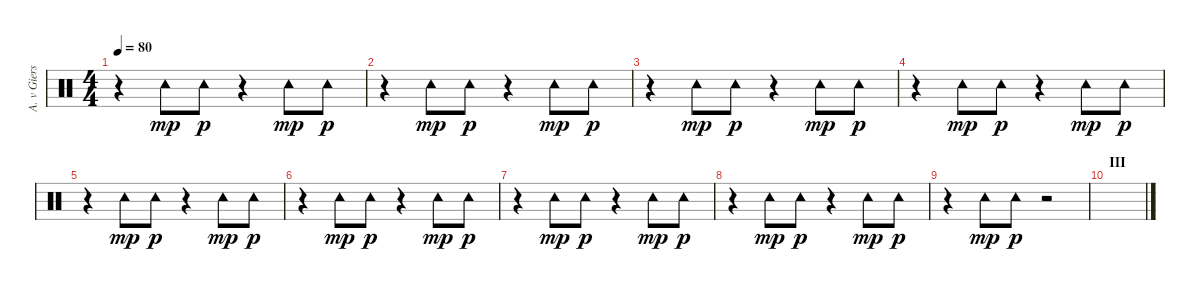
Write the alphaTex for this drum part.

\track ("A. v Giersbergen (tambourine)" "A. v Giers") {instrument percussion}
\staff {score}
\articulation defaults
\ts (4 4)
\tempo 80
\clef neutral
\ks c
r.4{dy p} "Tambourine (hit)".8{dy mp} "Tambourine (hit)".8{dy p} r.4 "Tambourine (hit)".8{dy mp} "Tambourine (hit)".8{dy p} |
r.4 "Tambourine (hit)".8{dy mp} "Tambourine (hit)".8{dy p} r.4 "Tambourine (hit)".8{dy mp} "Tambourine (hit)".8{dy p} |
r.4 "Tambourine (hit)".8{dy mp} "Tambourine (hit)".8{dy p} r.4 "Tambourine (hit)".8{dy mp} "Tambourine (hit)".8{dy p} |
r.4 "Tambourine (hit)".8{dy mp} "Tambourine (hit)".8{dy p} r.4 "Tambourine (hit)".8{dy mp} "Tambourine (hit)".8{dy p} |
r.4 "Tambourine (hit)".8{dy mp} "Tambourine (hit)".8{dy p} r.4 "Tambourine (hit)".8{dy mp} "Tambourine (hit)".8{dy p} |
r.4 "Tambourine (hit)".8{dy mp} "Tambourine (hit)".8{dy p} r.4 "Tambourine (hit)".8{dy mp} "Tambourine (hit)".8{dy p} |
r.4 "Tambourine (hit)".8{dy mp} "Tambourine (hit)".8{dy p} r.4 "Tambourine (hit)".8{dy mp} "Tambourine (hit)".8{dy p} |
r.4 "Tambourine (hit)".8{dy mp} "Tambourine (hit)".8{dy p} r.4 "Tambourine (hit)".8{dy mp} "Tambourine (hit)".8{dy p} |
r.4 "Tambourine (hit)".8{dy mp} "Tambourine (hit)".8{dy p} r.2 |
\section ("" "III")
